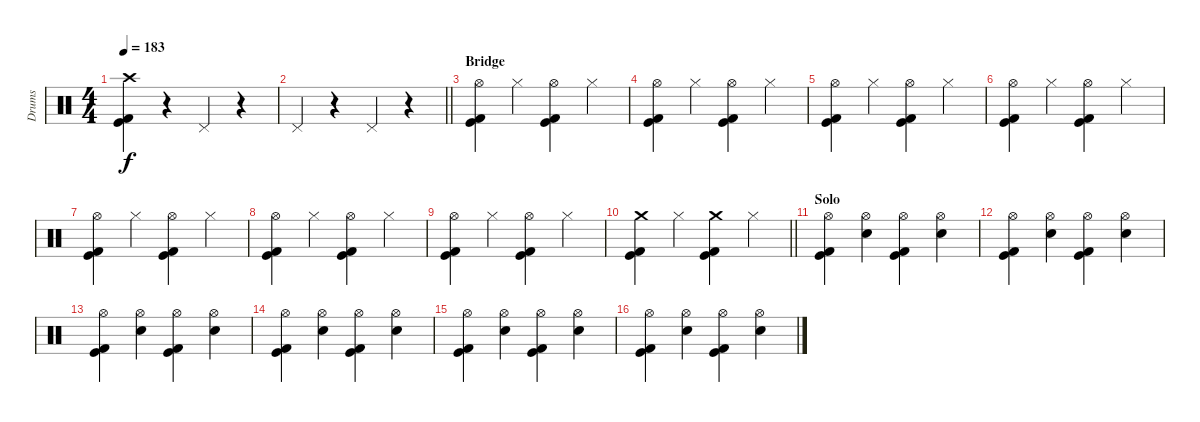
\track ("Drums" "Drums") {instrument percussion}
\staff
\articulation defaults
\ts (4 4)
\tempo 183
\clef neutral
\ks c
("Crash high (hit)" "Kick (hit)" "Kick (hit) 2").4{dy f} r.4 "Pedal Hi-Hat (hit)".4 r.4 |
\barLineRight lightlight "Pedal Hi-Hat (hit)".4
r.4 "Pedal Hi-Hat (hit)".4 r.4 |
\section ("" "Bridge")
("Hi-Hat (open)" "Kick (hit)" "Kick (hit) 2").4 "Hi-Hat (closed)".4 ("Hi-Hat (open)" "Kick (hit)" "Kick (hit) 2").4 "Hi-Hat (closed)".4 |
("Hi-Hat (open)" "Kick (hit)" "Kick (hit) 2").4 "Hi-Hat (closed)".4 ("Hi-Hat (open)" "Kick (hit)" "Kick (hit) 2").4 "Hi-Hat (closed)".4 |
("Hi-Hat (open)" "Kick (hit)" "Kick (hit) 2").4 "Hi-Hat (closed)".4 ("Hi-Hat (open)" "Kick (hit)" "Kick (hit) 2").4 "Hi-Hat (closed)".4 |
("Hi-Hat (open)" "Kick (hit)" "Kick (hit) 2").4 "Hi-Hat (closed)".4 ("Hi-Hat (open)" "Kick (hit)" "Kick (hit) 2").4 "Hi-Hat (closed)".4 |
("Hi-Hat (open)" "Kick (hit)" "Kick (hit) 2").4 "Hi-Hat (closed)".4 ("Hi-Hat (open)" "Kick (hit)" "Kick (hit) 2").4 "Hi-Hat (closed)".4 |
("Hi-Hat (open)" "Kick (hit)" "Kick (hit) 2").4 "Hi-Hat (closed)".4 ("Hi-Hat (open)" "Kick (hit)" "Kick (hit) 2").4 "Hi-Hat (closed)".4 |
("Hi-Hat (open)" "Kick (hit)" "Kick (hit) 2").4 "Hi-Hat (closed)".4 ("Hi-Hat (open)" "Kick (hit)" "Kick (hit) 2").4 "Hi-Hat (closed)".4 |
\barLineRight lightlight
("Crash medium (hit)" "Kick (hit)" "Kick (hit) 2").4 "Hi-Hat (closed)".4 ("Crash medium (hit)" "Kick (hit)" "Kick (hit) 2").4 "Hi-Hat (closed)".4 |
\section ("" "Solo")
("Hi-Hat (open)" "Kick (hit)" "Kick (hit) 2").4 ("Hi-Hat (open)" "Snare (hit) 2").4 ("Hi-Hat (open)" "Kick (hit)" "Kick (hit) 2").4 ("Hi-Hat (open)" "Snare (hit) 2").4 |
("Hi-Hat (open)" "Kick (hit)" "Kick (hit) 2").4 ("Hi-Hat (open)" "Snare (hit) 2").4 ("Hi-Hat (open)" "Kick (hit)" "Kick (hit) 2").4 ("Hi-Hat (open)" "Snare (hit) 2").4 |
("Hi-Hat (open)" "Kick (hit)" "Kick (hit) 2").4 ("Hi-Hat (open)" "Snare (hit) 2").4 ("Hi-Hat (open)" "Kick (hit)" "Kick (hit) 2").4 ("Hi-Hat (open)" "Snare (hit) 2").4 |
("Hi-Hat (open)" "Kick (hit)" "Kick (hit) 2").4 ("Hi-Hat (open)" "Snare (hit) 2").4 ("Hi-Hat (open)" "Kick (hit)" "Kick (hit) 2").4 ("Hi-Hat (open)" "Snare (hit) 2").4 |
("Hi-Hat (open)" "Kick (hit)" "Kick (hit) 2").4 ("Hi-Hat (open)" "Snare (hit) 2").4 ("Hi-Hat (open)" "Kick (hit)" "Kick (hit) 2").4 ("Hi-Hat (open)" "Snare (hit) 2").4 |
("Hi-Hat (open)" "Kick (hit)" "Kick (hit) 2").4 ("Hi-Hat (open)" "Snare (hit) 2").4 ("Hi-Hat (open)" "Kick (hit)" "Kick (hit) 2").4 ("Hi-Hat (open)" "Snare (hit) 2").4
